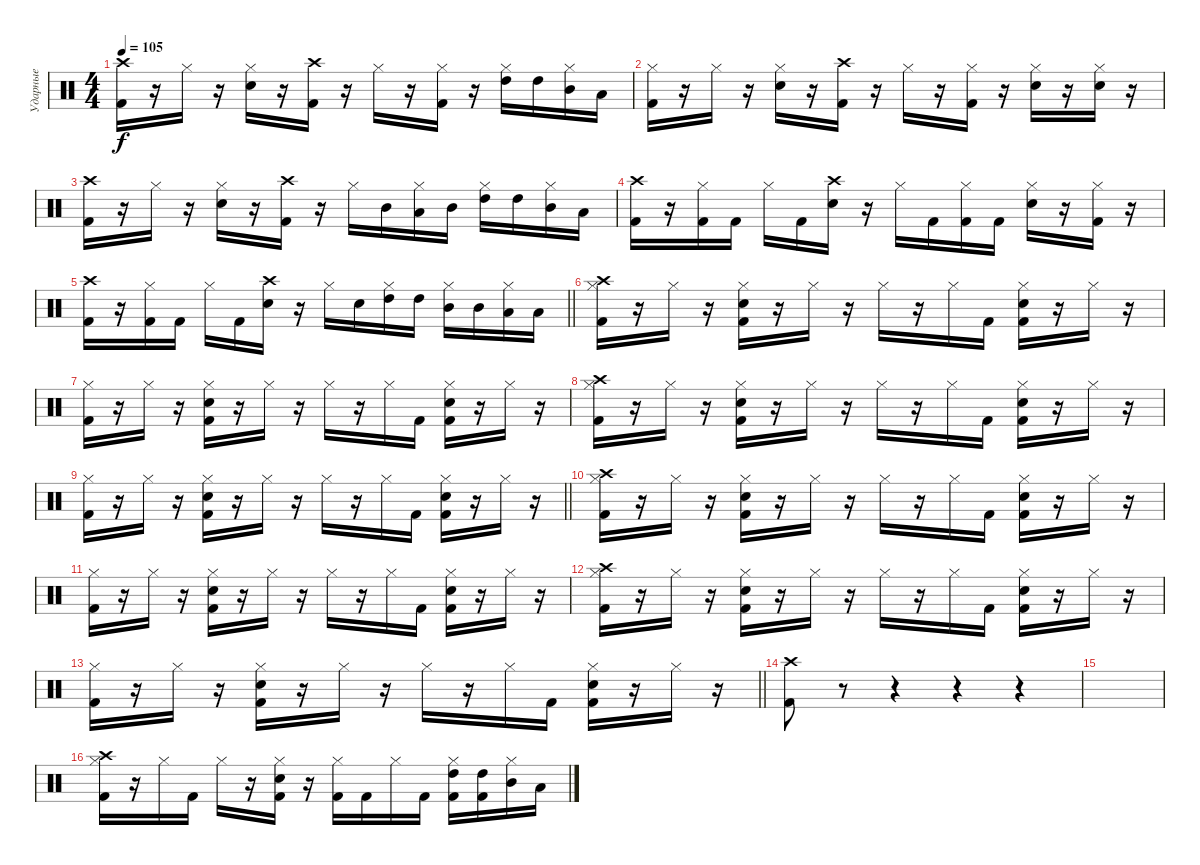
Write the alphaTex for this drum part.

\track ("Ударные" "Ударные") {instrument percussion}
\staff {score}
\articulation defaults
\ts (4 4)
\tempo 105
\clef neutral
\ks c
("Crash high (hit)" "Kick (hit) 2").16{dy f} r.16 "Hi-Hat (closed)".16 r.16 ("Hi-Hat (closed)" "Electric Snare (hit)").16 r.16 ("Crash high (hit)" "Kick (hit) 2").16 r.16 "Hi-Hat (closed)".16 r.16 ("Hi-Hat (closed)" "Kick (hit) 2").16 r.16 ("Hi-Hat (closed)" "High Tom (hit)").16 "High Tom (hit)".16 ("Hi-Hat (closed)" "Mid Tom (hit)").16 "Low Tom (hit)".16 |
("Hi-Hat (closed)" "Kick (hit) 2").16 r.16 "Hi-Hat (closed)".16 r.16 ("Hi-Hat (closed)" "Electric Snare (hit)").16 r.16 ("Crash high (hit)" "Kick (hit) 2").16 r.16 "Hi-Hat (closed)".16 r.16 ("Hi-Hat (closed)" "Kick (hit) 2").16 r.16 ("Hi-Hat (closed)" "Electric Snare (hit)").16 r.16 ("Hi-Hat (closed)" "Electric Snare (hit)").16 r.16 |
("Crash high (hit)" "Kick (hit) 2").16 r.16 "Hi-Hat (closed)".16 r.16 ("Hi-Hat (closed)" "Electric Snare (hit)").16 r.16 ("Crash high (hit)" "Kick (hit) 2").16 r.16 "Hi-Hat (closed)".16 "Mid Tom (hit)".16 ("Hi-Hat (closed)" "Low Tom (hit)").16 "Mid Tom (hit)".16 ("Hi-Hat (closed)" "High Tom (hit)").16 "High Tom (hit)".16 ("Hi-Hat (closed)" "Mid Tom (hit)").16 "Low Tom (hit)".16 |
("Crash high (hit)" "Kick (hit) 2").16 r.16 ("Hi-Hat (closed)" "Kick (hit) 2").16 "Kick (hit) 2".16 "Hi-Hat (closed)".16 "Kick (hit) 2".16 ("Crash high (hit)" "Electric Snare (hit)").16 r.16 "Hi-Hat (closed)".16 "Kick (hit) 2".16 ("Hi-Hat (closed)" "Kick (hit) 2").16 "Kick (hit) 2".16 ("Hi-Hat (closed)" "Electric Snare (hit)").16 r.16 ("Hi-Hat (closed)" "Kick (hit) 2").16 r.16 |
\barLineRight lightlight
("Crash high (hit)" "Kick (hit) 2").16 r.16 ("Hi-Hat (closed)" "Kick (hit) 2").16 "Kick (hit) 2".16 "Hi-Hat (closed)".16 "Kick (hit) 2".16 ("Crash high (hit)" "Electric Snare (hit)").16 r.16 "Hi-Hat (closed)".16 "Electric Snare (hit)".16 ("Hi-Hat (closed)" "High Tom (hit)").16 "High Tom (hit)".16 ("Hi-Hat (closed)" "Mid Tom (hit)").16 "Mid Tom (hit)".16 ("Hi-Hat (closed)" "Low Tom (hit)").16 "Low Tom (hit)".16 |
("Hi-Hat (closed)" "Kick (hit) 2" "Crash high (hit)").16 r.16 "Hi-Hat (closed)".16 r.16 ("Hi-Hat (closed)" "Kick (hit) 2" "Electric Snare (hit)").16 r.16 "Hi-Hat (closed)".16 r.16 "Hi-Hat (closed)".16 r.16 "Hi-Hat (closed)".16 "Kick (hit) 2".16 ("Hi-Hat (closed)" "Kick (hit) 2" "Electric Snare (hit)").16 r.16 "Hi-Hat (closed)".16 r.16 |
("Hi-Hat (closed)" "Kick (hit) 2").16 r.16 "Hi-Hat (closed)".16 r.16 ("Hi-Hat (closed)" "Kick (hit) 2" "Electric Snare (hit)").16 r.16 "Hi-Hat (closed)".16 r.16 "Hi-Hat (closed)".16 r.16 "Hi-Hat (closed)".16 "Kick (hit) 2".16 ("Hi-Hat (closed)" "Kick (hit) 2" "Electric Snare (hit)").16 r.16 "Hi-Hat (closed)".16 r.16 |
("Hi-Hat (closed)" "Kick (hit) 2" "Crash high (hit)").16 r.16 "Hi-Hat (closed)".16 r.16 ("Hi-Hat (closed)" "Kick (hit) 2" "Electric Snare (hit)").16 r.16 "Hi-Hat (closed)".16 r.16 "Hi-Hat (closed)".16 r.16 "Hi-Hat (closed)".16 "Kick (hit) 2".16 ("Hi-Hat (closed)" "Kick (hit) 2" "Electric Snare (hit)").16 r.16 "Hi-Hat (closed)".16 r.16 |
\barLineRight lightlight
("Hi-Hat (closed)" "Kick (hit) 2").16 r.16 "Hi-Hat (closed)".16 r.16 ("Hi-Hat (closed)" "Kick (hit) 2" "Electric Snare (hit)").16 r.16 "Hi-Hat (closed)".16 r.16 "Hi-Hat (closed)".16 r.16 "Hi-Hat (closed)".16 "Kick (hit) 2".16 ("Hi-Hat (closed)" "Kick (hit) 2" "Electric Snare (hit)").16 r.16 "Hi-Hat (closed)".16 r.16 |
("Hi-Hat (closed)" "Kick (hit) 2" "Crash high (hit)").16 r.16 "Hi-Hat (closed)".16 r.16 ("Hi-Hat (closed)" "Kick (hit) 2" "Electric Snare (hit)").16 r.16 "Hi-Hat (closed)".16 r.16 "Hi-Hat (closed)".16 r.16 "Hi-Hat (closed)".16 "Kick (hit) 2".16 ("Hi-Hat (closed)" "Kick (hit) 2" "Electric Snare (hit)").16 r.16 "Hi-Hat (closed)".16 r.16 |
("Hi-Hat (closed)" "Kick (hit) 2").16 r.16 "Hi-Hat (closed)".16 r.16 ("Hi-Hat (closed)" "Kick (hit) 2" "Electric Snare (hit)").16 r.16 "Hi-Hat (closed)".16 r.16 "Hi-Hat (closed)".16 r.16 "Hi-Hat (closed)".16 "Kick (hit) 2".16 ("Hi-Hat (closed)" "Kick (hit) 2" "Electric Snare (hit)").16 r.16 "Hi-Hat (closed)".16 r.16 |
("Hi-Hat (closed)" "Kick (hit) 2" "Crash high (hit)").16 r.16 "Hi-Hat (closed)".16 r.16 ("Hi-Hat (closed)" "Kick (hit) 2" "Electric Snare (hit)").16 r.16 "Hi-Hat (closed)".16 r.16 "Hi-Hat (closed)".16 r.16 "Hi-Hat (closed)".16 "Kick (hit) 2".16 ("Hi-Hat (closed)" "Kick (hit) 2" "Electric Snare (hit)").16 r.16 "Hi-Hat (closed)".16 r.16 |
\barLineRight lightlight
("Hi-Hat (closed)" "Kick (hit) 2").16 r.16 "Hi-Hat (closed)".16 r.16 ("Hi-Hat (closed)" "Kick (hit) 2" "Electric Snare (hit)").16 r.16 "Hi-Hat (closed)".16 r.16 "Hi-Hat (closed)".16 r.16 "Hi-Hat (closed)".16 "Kick (hit) 2".16 ("Hi-Hat (closed)" "Kick (hit) 2" "Electric Snare (hit)").16 r.16 "Hi-Hat (closed)".16 r.16 |
("Kick (hit) 2" "Crash high (hit)").8 r.8 r.4 r.4 r.4 |
|
("Hi-Hat (closed)" "Crash high (hit)" "Kick (hit) 2").16 r.16 "Hi-Hat (closed)".16 "Kick (hit) 2".16 "Hi-Hat (closed)".16 r.16 ("Hi-Hat (closed)" "Kick (hit) 2" "Electric Snare (hit)").16 r.16 ("Hi-Hat (closed)" "Kick (hit) 2").16 "Kick (hit) 2".16 "Hi-Hat (closed)".16 "Kick (hit) 2".16 ("Hi-Hat (closed)" "Kick (hit) 2" "High Tom (hit)").16 ("Kick (hit) 2" "High Tom (hit)").16 ("Hi-Hat (closed)" "Mid Tom (hit)").16 "Low Tom (hit)".16
